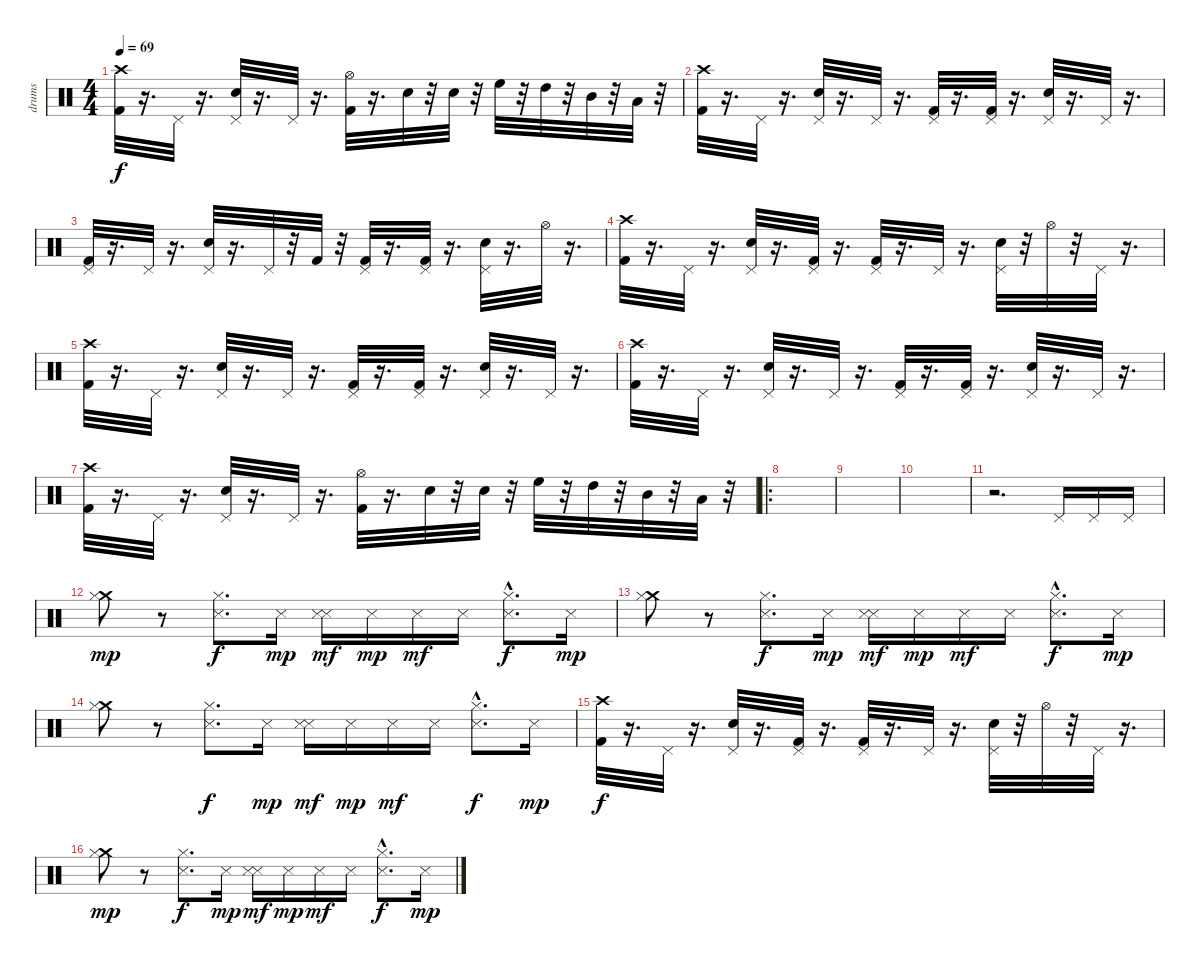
\track ("drums" "drums") {instrument percussion}
\staff {score}
\articulation defaults
\ts (4 4)
\tempo 69
\clef neutral
\ks c
("Crash high (hit)" "Kick (hit) 2").32{dy f} r.16{d} "Pedal Hi-Hat (hit)".32 r.16{d} ("Pedal Hi-Hat (hit)" "Snare (hit) 2").32 r.16{d} "Pedal Hi-Hat (hit)".32 r.16{d} ("Hi-Hat (open)" "Kick (hit) 2").32 r.16{d} "Snare (hit) 2".32 r.32 "Snare (hit) 2".32 r.32 "High Floor Tom (hit)".32 r.32 "High Tom (hit)".32 r.32 "Mid Tom (hit)".32 r.32 "Low Tom (hit)".32 r.32 |
("Crash high (hit)" "Kick (hit) 2").32 r.16{d} "Pedal Hi-Hat (hit)".32 r.16{d} ("Pedal Hi-Hat (hit)" "Snare (hit) 2").32 r.16{d} "Pedal Hi-Hat (hit)".32 r.16{d} ("Pedal Hi-Hat (hit)" "Kick (hit) 2").32 r.16{d} ("Pedal Hi-Hat (hit)" "Kick (hit) 2").32 r.16{d} ("Pedal Hi-Hat (hit)" "Snare (hit) 2").32 r.16{d} "Pedal Hi-Hat (hit)".32 r.16{d} |
("Pedal Hi-Hat (hit)" "Kick (hit) 2").32 r.16{d} "Pedal Hi-Hat (hit)".32 r.16{d} ("Pedal Hi-Hat (hit)" "Snare (hit) 2").32 r.16{d} "Pedal Hi-Hat (hit)".32 r.32 "Kick (hit) 2".32 r.32 ("Pedal Hi-Hat (hit)" "Kick (hit) 2").32 r.16{d} ("Pedal Hi-Hat (hit)" "Kick (hit) 2").32 r.16{d} ("Pedal Hi-Hat (hit)" "Snare (hit) 2").32 r.16{d} "Hi-Hat (open)".32 r.16{d} |
("Crash high (hit)" "Kick (hit) 2").32 r.16{d} "Pedal Hi-Hat (hit)".32 r.16{d} ("Pedal Hi-Hat (hit)" "Snare (hit) 2").32 r.16{d} ("Pedal Hi-Hat (hit)" "Kick (hit) 2").32 r.16{d} ("Pedal Hi-Hat (hit)" "Kick (hit) 2").32 r.16{d} "Pedal Hi-Hat (hit)".32 r.16{d} ("Pedal Hi-Hat (hit)" "Snare (hit) 2").32 r.32 "Hi-Hat (open)".32 r.32 "Pedal Hi-Hat (hit)".32 r.16{d} |
("Crash high (hit)" "Kick (hit) 2").32 r.16{d} "Pedal Hi-Hat (hit)".32 r.16{d} ("Pedal Hi-Hat (hit)" "Snare (hit) 2").32 r.16{d} "Pedal Hi-Hat (hit)".32 r.16{d} ("Pedal Hi-Hat (hit)" "Kick (hit) 2").32 r.16{d} ("Pedal Hi-Hat (hit)" "Kick (hit) 2").32 r.16{d} ("Pedal Hi-Hat (hit)" "Snare (hit) 2").32 r.16{d} "Pedal Hi-Hat (hit)".32 r.16{d} |
("Crash high (hit)" "Kick (hit) 2").32 r.16{d} "Pedal Hi-Hat (hit)".32 r.16{d} ("Pedal Hi-Hat (hit)" "Snare (hit) 2").32 r.16{d} "Pedal Hi-Hat (hit)".32 r.16{d} ("Pedal Hi-Hat (hit)" "Kick (hit) 2").32 r.16{d} ("Pedal Hi-Hat (hit)" "Kick (hit) 2").32 r.16{d} ("Pedal Hi-Hat (hit)" "Snare (hit) 2").32 r.16{d} "Pedal Hi-Hat (hit)".32 r.16{d} |
("Crash high (hit)" "Kick (hit) 2").32 r.16{d} "Pedal Hi-Hat (hit)".32 r.16{d} ("Pedal Hi-Hat (hit)" "Snare (hit) 2").32 r.16{d} "Pedal Hi-Hat (hit)".32 r.16{d} ("Hi-Hat (open)" "Kick (hit) 2").32 r.16{d} "Snare (hit) 2".32 r.32 "Snare (hit) 2".32 r.32 "High Floor Tom (hit)".32 r.32 "High Tom (hit)".32 r.32 "Mid Tom (hit)".32 r.32 "Low Tom (hit)".32 r.32 |
\ro
|
|
|
r.2{d} "Pedal Hi-Hat (hit)".16 "Pedal Hi-Hat (hit)".16 "Pedal Hi-Hat (hit)".16 |
("Crash medium (hit)" "Hi-Hat (closed)").8{dy mp} r.8 ("Snare (side stick) 3" "Hi-Hat (closed)").8{d dy f} "Snare (side stick) 3".16{dy mp} ("Snare (side stick) 3" "Snare (side stick) 3").16{dy mf} "Snare (side stick) 3".16{dy mp} "Snare (side stick) 3".16{dy mf} "Snare (side stick) 3".16 ("Hi-Hat (closed)"{hac} "Snare (side stick) 3"{hac}).8{d dy f} "Snare (side stick) 3".16{dy mp} |
("Crash medium (hit)" "Hi-Hat (closed)").8 r.8 ("Snare (side stick) 3" "Hi-Hat (closed)").8{d dy f} "Snare (side stick) 3".16{dy mp} ("Snare (side stick) 3" "Snare (side stick) 3").16{dy mf} "Snare (side stick) 3".16{dy mp} "Snare (side stick) 3".16{dy mf} "Snare (side stick) 3".16 ("Hi-Hat (closed)"{hac} "Snare (side stick) 3"{hac}).8{d dy f} "Snare (side stick) 3".16{dy mp} |
("Crash medium (hit)" "Hi-Hat (closed)").8 r.8 ("Snare (side stick) 3" "Hi-Hat (closed)").8{d dy f} "Snare (side stick) 3".16{dy mp} ("Snare (side stick) 3" "Snare (side stick) 3").16{dy mf} "Snare (side stick) 3".16{dy mp} "Snare (side stick) 3".16{dy mf} "Snare (side stick) 3".16 ("Hi-Hat (closed)"{hac} "Snare (side stick) 3"{hac}).8{d dy f} "Snare (side stick) 3".16{dy mp} |
("Crash high (hit)" "Kick (hit) 2").32{dy f} r.16{d} "Pedal Hi-Hat (hit)".32 r.16{d} ("Pedal Hi-Hat (hit)" "Snare (hit) 2").32 r.16{d} ("Pedal Hi-Hat (hit)" "Kick (hit) 2").32 r.16{d} ("Pedal Hi-Hat (hit)" "Kick (hit) 2").32 r.16{d} "Pedal Hi-Hat (hit)".32 r.16{d} ("Pedal Hi-Hat (hit)" "Snare (hit) 2").32 r.32 "Hi-Hat (open)".32 r.32 "Pedal Hi-Hat (hit)".32 r.16{d} |
("Crash medium (hit)" "Hi-Hat (closed)").8{dy mp} r.8 ("Snare (side stick) 3" "Hi-Hat (closed)").8{d dy f} "Snare (side stick) 3".16{dy mp} ("Snare (side stick) 3" "Snare (side stick) 3").16{dy mf} "Snare (side stick) 3".16{dy mp} "Snare (side stick) 3".16{dy mf} "Snare (side stick) 3".16 ("Hi-Hat (closed)"{hac} "Snare (side stick) 3"{hac}).8{d dy f} "Snare (side stick) 3".16{dy mp}
